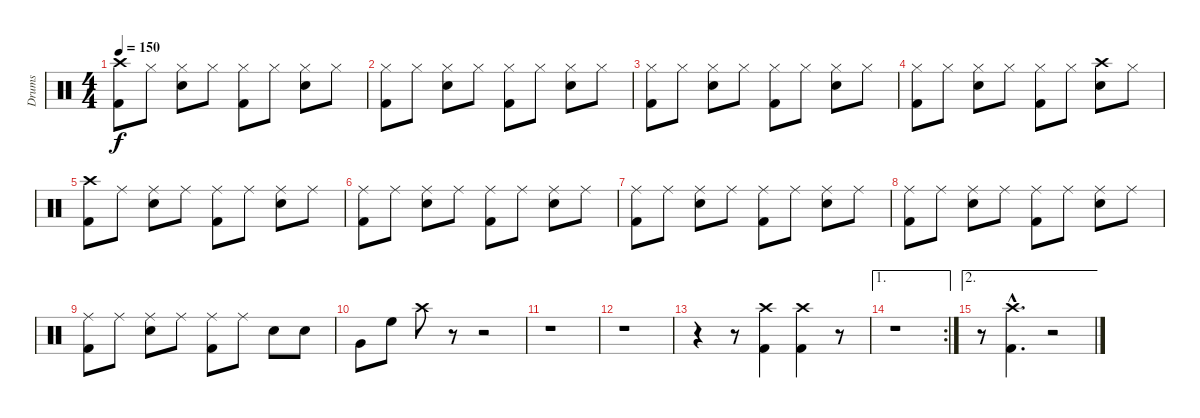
\track ("Drums" "Drums") {instrument percussion}
\staff {score}
\articulation defaults
\ts (4 4)
\tempo 150
\clef neutral
\ks c
("Crash high (hit)" "Kick (hit) 2").8{dy f} "Hi-Hat (closed)".8 ("Hi-Hat (closed)" "Electric Snare (hit)").8 "Hi-Hat (closed)".8 ("Hi-Hat (closed)" "Kick (hit) 2").8 "Hi-Hat (closed)".8 ("Hi-Hat (closed)" "Electric Snare (hit)").8 "Hi-Hat (closed)".8 |
("Hi-Hat (closed)" "Kick (hit) 2").8 "Hi-Hat (closed)".8 ("Hi-Hat (closed)" "Electric Snare (hit)").8 "Hi-Hat (closed)".8 ("Hi-Hat (closed)" "Kick (hit) 2").8 "Hi-Hat (closed)".8 ("Hi-Hat (closed)" "Electric Snare (hit)").8 "Hi-Hat (closed)".8 |
("Hi-Hat (closed)" "Kick (hit) 2").8 "Hi-Hat (closed)".8 ("Hi-Hat (closed)" "Electric Snare (hit)").8 "Hi-Hat (closed)".8 ("Hi-Hat (closed)" "Kick (hit) 2").8 "Hi-Hat (closed)".8 ("Hi-Hat (closed)" "Electric Snare (hit)").8 "Hi-Hat (closed)".8 |
("Hi-Hat (closed)" "Kick (hit) 2").8 "Hi-Hat (closed)".8 ("Hi-Hat (closed)" "Electric Snare (hit)").8 "Hi-Hat (closed)".8 ("Hi-Hat (closed)" "Kick (hit) 2").8 "Hi-Hat (closed)".8 ("Crash high (hit)" "Electric Snare (hit)").8 "Hi-Hat (closed)".8 |
("Crash high (hit)" "Kick (hit) 2").8 "Ride (middle)".8 ("Ride (middle)" "Electric Snare (hit)").8 "Ride (middle)".8 ("Ride (middle)" "Kick (hit) 2").8 "Ride (middle)".8 ("Ride (middle)" "Electric Snare (hit)").8 "Ride (middle)".8 |
("Ride (middle)" "Kick (hit) 2").8 "Ride (middle)".8 ("Ride (middle)" "Electric Snare (hit)").8 "Ride (middle)".8 ("Ride (middle)" "Kick (hit) 2").8 "Ride (middle)".8 ("Ride (middle)" "Electric Snare (hit)").8 "Ride (middle)".8 |
("Ride (middle)" "Kick (hit) 2").8 "Ride (middle)".8 ("Ride (middle)" "Electric Snare (hit)").8 "Ride (middle)".8 ("Ride (middle)" "Kick (hit) 2").8 "Ride (middle)".8 ("Ride (middle)" "Electric Snare (hit)").8 "Ride (middle)".8 |
("Ride (middle)" "Kick (hit) 2").8 "Ride (middle)".8 ("Ride (middle)" "Electric Snare (hit)").8 "Ride (middle)".8 ("Ride (middle)" "Kick (hit) 2").8 "Ride (middle)".8 ("Ride (middle)" "Electric Snare (hit)").8 "Ride (middle)".8 |
("Ride (middle)" "Kick (hit) 2").8 "Ride (middle)".8 ("Ride (middle)" "Electric Snare (hit)").8 "Ride (middle)".8 ("Ride (middle)" "Kick (hit) 2").8 "Ride (middle)".8 "Electric Snare (hit)".8 "Electric Snare (hit)".8 |
"Very Low Tom (hit)".8 "High Floor Tom (hit)".8 "Crash high (hit)".8 r.8 r.2 |
r.1 |
r.1 |
r.4 r.8 ("Crash high (hit)" "Kick (hit) 2").4 ("Crash high (hit)" "Kick (hit) 2").4 r.8 |
\ae 1
\rc 2
r.1 |
\ae 2
r.8 ("Crash high (hit)"{hac} "Kick (hit) 2"{hac}).4{d} r.2
